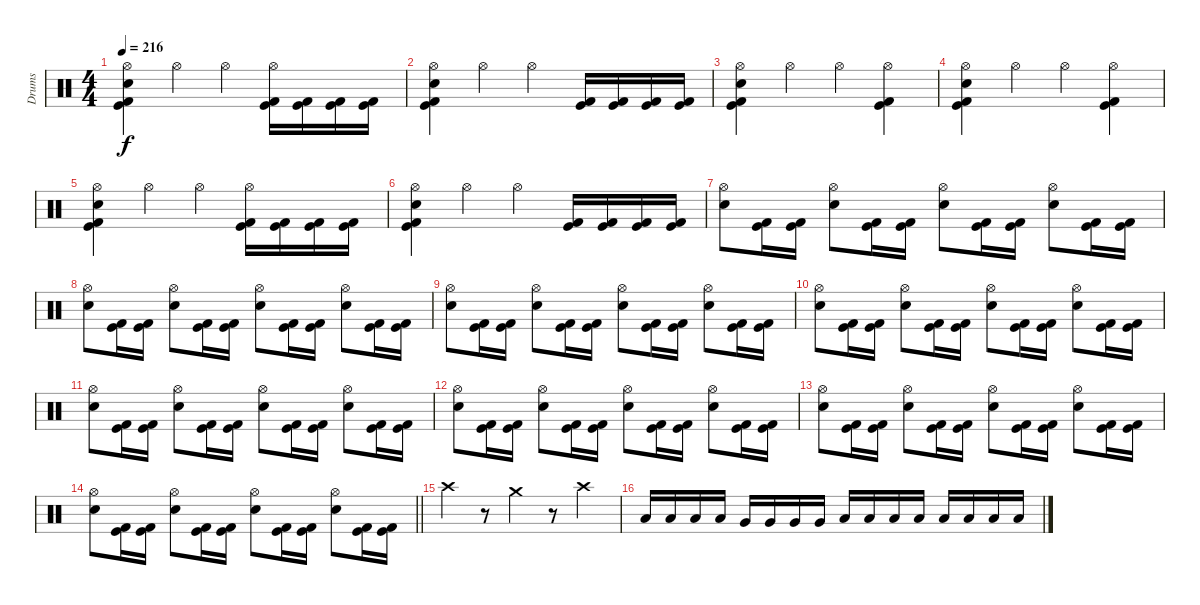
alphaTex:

\track ("Drums" "Drums") {instrument percussion}
\staff {score}
\articulation defaults
\ts (4 4)
\tempo 216
\clef neutral
\ks c
("Hi-Hat (open)" "Electric Snare (hit)" "Kick (hit)" "Kick (hit) 2").4{dy f} "Hi-Hat (open)".4 "Hi-Hat (open)".4 ("Hi-Hat (open)" "Kick (hit)" "Kick (hit) 2").16 ("Kick (hit)" "Kick (hit) 2").16 ("Kick (hit)" "Kick (hit) 2").16 ("Kick (hit)" "Kick (hit) 2").16 |
("Hi-Hat (open)" "Electric Snare (hit)" "Kick (hit)" "Kick (hit) 2").4 "Hi-Hat (open)".4 "Hi-Hat (open)".4 ("Kick (hit)" "Kick (hit) 2").16 ("Kick (hit)" "Kick (hit) 2").16 ("Kick (hit)" "Kick (hit) 2").16 ("Kick (hit)" "Kick (hit) 2").16 |
("Hi-Hat (open)" "Electric Snare (hit)" "Kick (hit)" "Kick (hit) 2").4 "Hi-Hat (open)".4 "Hi-Hat (open)".4 ("Hi-Hat (open)" "Kick (hit)" "Kick (hit) 2").4 |
("Hi-Hat (open)" "Electric Snare (hit)" "Kick (hit)" "Kick (hit) 2").4 "Hi-Hat (open)".4 "Hi-Hat (open)".4 ("Hi-Hat (open)" "Kick (hit)" "Kick (hit) 2").4 |
("Hi-Hat (open)" "Electric Snare (hit)" "Kick (hit)" "Kick (hit) 2").4 "Hi-Hat (open)".4 "Hi-Hat (open)".4 ("Hi-Hat (open)" "Kick (hit)" "Kick (hit) 2").16 ("Kick (hit)" "Kick (hit) 2").16 ("Kick (hit)" "Kick (hit) 2").16 ("Kick (hit)" "Kick (hit) 2").16 |
("Hi-Hat (open)" "Electric Snare (hit)" "Kick (hit)" "Kick (hit) 2").4 "Hi-Hat (open)".4 "Hi-Hat (open)".4 ("Kick (hit)" "Kick (hit) 2").16 ("Kick (hit)" "Kick (hit) 2").16 ("Kick (hit)" "Kick (hit) 2").16 ("Kick (hit)" "Kick (hit) 2").16 |
("Hi-Hat (open)" "Electric Snare (hit)").8 ("Kick (hit)" "Kick (hit) 2").16 ("Kick (hit)" "Kick (hit) 2").16 ("Hi-Hat (open)" "Electric Snare (hit)").8 ("Kick (hit)" "Kick (hit) 2").16 ("Kick (hit)" "Kick (hit) 2").16 ("Hi-Hat (open)" "Electric Snare (hit)").8 ("Kick (hit)" "Kick (hit) 2").16 ("Kick (hit)" "Kick (hit) 2").16 ("Hi-Hat (open)" "Electric Snare (hit)").8 ("Kick (hit)" "Kick (hit) 2").16 ("Kick (hit)" "Kick (hit) 2").16 |
("Hi-Hat (open)" "Electric Snare (hit)").8 ("Kick (hit)" "Kick (hit) 2").16 ("Kick (hit)" "Kick (hit) 2").16 ("Hi-Hat (open)" "Electric Snare (hit)").8 ("Kick (hit)" "Kick (hit) 2").16 ("Kick (hit)" "Kick (hit) 2").16 ("Hi-Hat (open)" "Electric Snare (hit)").8 ("Kick (hit)" "Kick (hit) 2").16 ("Kick (hit)" "Kick (hit) 2").16 ("Hi-Hat (open)" "Electric Snare (hit)").8 ("Kick (hit)" "Kick (hit) 2").16 ("Kick (hit)" "Kick (hit) 2").16 |
("Hi-Hat (open)" "Electric Snare (hit)").8 ("Kick (hit)" "Kick (hit) 2").16 ("Kick (hit)" "Kick (hit) 2").16 ("Hi-Hat (open)" "Electric Snare (hit)").8 ("Kick (hit)" "Kick (hit) 2").16 ("Kick (hit)" "Kick (hit) 2").16 ("Hi-Hat (open)" "Electric Snare (hit)").8 ("Kick (hit)" "Kick (hit) 2").16 ("Kick (hit)" "Kick (hit) 2").16 ("Hi-Hat (open)" "Electric Snare (hit)").8 ("Kick (hit)" "Kick (hit) 2").16 ("Kick (hit)" "Kick (hit) 2").16 |
("Hi-Hat (open)" "Electric Snare (hit)").8 ("Kick (hit)" "Kick (hit) 2").16 ("Kick (hit)" "Kick (hit) 2").16 ("Hi-Hat (open)" "Electric Snare (hit)").8 ("Kick (hit)" "Kick (hit) 2").16 ("Kick (hit)" "Kick (hit) 2").16 ("Hi-Hat (open)" "Electric Snare (hit)").8 ("Kick (hit)" "Kick (hit) 2").16 ("Kick (hit)" "Kick (hit) 2").16 ("Hi-Hat (open)" "Electric Snare (hit)").8 ("Kick (hit)" "Kick (hit) 2").16 ("Kick (hit)" "Kick (hit) 2").16 |
("Hi-Hat (open)" "Electric Snare (hit)").8 ("Kick (hit)" "Kick (hit) 2").16 ("Kick (hit)" "Kick (hit) 2").16 ("Hi-Hat (open)" "Electric Snare (hit)").8 ("Kick (hit)" "Kick (hit) 2").16 ("Kick (hit)" "Kick (hit) 2").16 ("Hi-Hat (open)" "Electric Snare (hit)").8 ("Kick (hit)" "Kick (hit) 2").16 ("Kick (hit)" "Kick (hit) 2").16 ("Hi-Hat (open)" "Electric Snare (hit)").8 ("Kick (hit)" "Kick (hit) 2").16 ("Kick (hit)" "Kick (hit) 2").16 |
("Hi-Hat (open)" "Electric Snare (hit)").8 ("Kick (hit)" "Kick (hit) 2").16 ("Kick (hit)" "Kick (hit) 2").16 ("Hi-Hat (open)" "Electric Snare (hit)").8 ("Kick (hit)" "Kick (hit) 2").16 ("Kick (hit)" "Kick (hit) 2").16 ("Hi-Hat (open)" "Electric Snare (hit)").8 ("Kick (hit)" "Kick (hit) 2").16 ("Kick (hit)" "Kick (hit) 2").16 ("Hi-Hat (open)" "Electric Snare (hit)").8 ("Kick (hit)" "Kick (hit) 2").16 ("Kick (hit)" "Kick (hit) 2").16 |
("Hi-Hat (open)" "Electric Snare (hit)").8 ("Kick (hit)" "Kick (hit) 2").16 ("Kick (hit)" "Kick (hit) 2").16 ("Hi-Hat (open)" "Electric Snare (hit)").8 ("Kick (hit)" "Kick (hit) 2").16 ("Kick (hit)" "Kick (hit) 2").16 ("Hi-Hat (open)" "Electric Snare (hit)").8 ("Kick (hit)" "Kick (hit) 2").16 ("Kick (hit)" "Kick (hit) 2").16 ("Hi-Hat (open)" "Electric Snare (hit)").8 ("Kick (hit)" "Kick (hit) 2").16 ("Kick (hit)" "Kick (hit) 2").16 |
\barLineRight lightlight
("Hi-Hat (open)" "Electric Snare (hit)").8 ("Kick (hit)" "Kick (hit) 2").16 ("Kick (hit)" "Kick (hit) 2").16 ("Hi-Hat (open)" "Electric Snare (hit)").8 ("Kick (hit)" "Kick (hit) 2").16 ("Kick (hit)" "Kick (hit) 2").16 ("Hi-Hat (open)" "Electric Snare (hit)").8 ("Kick (hit)" "Kick (hit) 2").16 ("Kick (hit)" "Kick (hit) 2").16 ("Hi-Hat (open)" "Electric Snare (hit)").8 ("Kick (hit)" "Kick (hit) 2").16 ("Kick (hit)" "Kick (hit) 2").16 |
"Crash high (hit)".4 r.8 "Crash medium (hit)".4 r.8 "Crash high (hit)".4 |
"Low Tom (hit)".16 "Low Tom (hit)".16 "Low Tom (hit)".16 "Low Tom (hit)".16 "Very Low Tom (hit)".16 "Very Low Tom (hit)".16 "Very Low Tom (hit)".16 "Very Low Tom (hit)".16 "Low Tom (hit)".16 "Low Tom (hit)".16 "Low Tom (hit)".16 "Low Tom (hit)".16 "Low Floor Tom (hit)".16 "Low Floor Tom (hit)".16 "Low Floor Tom (hit)".16 "Low Floor Tom (hit)".16
